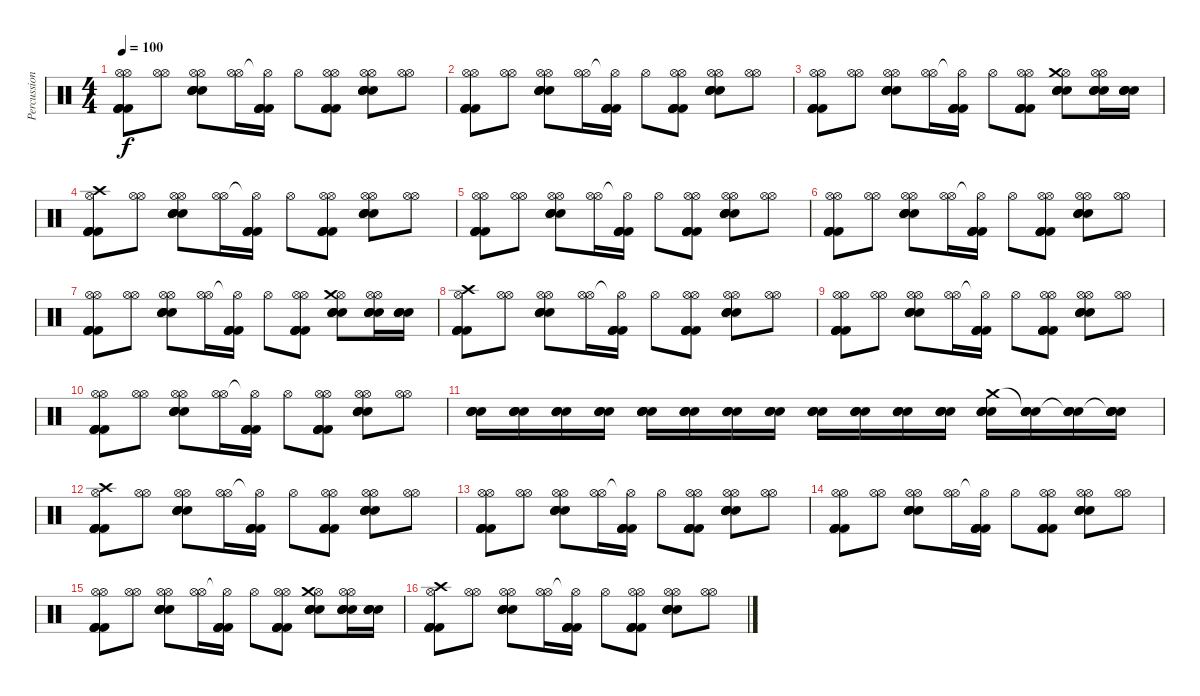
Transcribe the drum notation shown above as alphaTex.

\track ("Percussion" "Percussion") {instrument percussion}
\staff {score}
\articulation defaults
\ts (4 4)
\tempo 100
\clef neutral
\ks c
("Hi-Hat (open)" "Kick (hit) 2" "Kick (hit) 2" "Kick (hit) 2" "Kick (hit) 2" "Hi-Hat (open)").8{dy f} ("Hi-Hat (open)" "Hi-Hat (open)").8 ("Hi-Hat (open)" "Electric Snare (hit)" "Electric Snare (hit)" "Electric Snare (hit)" "Electric Snare (hit)" "Hi-Hat (open)").8 ("Hi-Hat (open)" "Hi-Hat (open)").16 ("Hi-Hat (open)"{t} "Kick (hit) 2" "Kick (hit) 2" "Kick (hit) 2" "Kick (hit) 2").16 "Hi-Hat (open)".8 ("Hi-Hat (open)" "Kick (hit) 2" "Kick (hit) 2" "Kick (hit) 2" "Kick (hit) 2" "Hi-Hat (open)").8 ("Hi-Hat (open)" "Electric Snare (hit)" "Electric Snare (hit)" "Electric Snare (hit)" "Electric Snare (hit)" "Hi-Hat (open)").8 ("Hi-Hat (open)" "Hi-Hat (open)").8 |
("Hi-Hat (open)" "Kick (hit) 2" "Kick (hit) 2" "Kick (hit) 2" "Kick (hit) 2" "Hi-Hat (open)").8 ("Hi-Hat (open)" "Hi-Hat (open)").8 ("Hi-Hat (open)" "Electric Snare (hit)" "Electric Snare (hit)" "Electric Snare (hit)" "Electric Snare (hit)" "Hi-Hat (open)").8 ("Hi-Hat (open)" "Hi-Hat (open)").16 ("Hi-Hat (open)"{t} "Kick (hit) 2" "Kick (hit) 2" "Kick (hit) 2" "Kick (hit) 2").16 "Hi-Hat (open)".8 ("Hi-Hat (open)" "Kick (hit) 2" "Kick (hit) 2" "Kick (hit) 2" "Kick (hit) 2" "Hi-Hat (open)").8 ("Hi-Hat (open)" "Electric Snare (hit)" "Electric Snare (hit)" "Electric Snare (hit)" "Electric Snare (hit)" "Hi-Hat (open)").8 ("Hi-Hat (open)" "Hi-Hat (open)").8 |
("Hi-Hat (open)" "Kick (hit) 2" "Kick (hit) 2" "Kick (hit) 2" "Kick (hit) 2" "Hi-Hat (open)").8 ("Hi-Hat (open)" "Hi-Hat (open)").8 ("Hi-Hat (open)" "Electric Snare (hit)" "Electric Snare (hit)" "Electric Snare (hit)" "Electric Snare (hit)" "Hi-Hat (open)").8 ("Hi-Hat (open)" "Hi-Hat (open)").16 ("Hi-Hat (open)"{t} "Kick (hit) 2" "Kick (hit) 2" "Kick (hit) 2" "Kick (hit) 2").16 "Hi-Hat (open)".8 ("Hi-Hat (open)" "Kick (hit) 2" "Kick (hit) 2" "Kick (hit) 2" "Kick (hit) 2" "Hi-Hat (open)").8 ("Hi-Hat (open)" "Electric Snare (hit)" "Electric Snare (hit)" "Electric Snare (hit)" "Electric Snare (hit)" "Crash medium (hit)").8 ("Hi-Hat (open)" "Electric Snare (hit)" "Electric Snare (hit)" "Electric Snare (hit)" "Electric Snare (hit)" "Hi-Hat (open)").16 ("Electric Snare (hit)" "Electric Snare (hit)" "Electric Snare (hit)" "Electric Snare (hit)").16 |
("Hi-Hat (open)" "Kick (hit) 2" "Kick (hit) 2" "Kick (hit) 2" "Kick (hit) 2" "Crash high (hit)").8 ("Hi-Hat (open)" "Hi-Hat (open)").8 ("Hi-Hat (open)" "Electric Snare (hit)" "Electric Snare (hit)" "Electric Snare (hit)" "Electric Snare (hit)" "Hi-Hat (open)").8 ("Hi-Hat (open)" "Hi-Hat (open)").16 ("Hi-Hat (open)"{t} "Kick (hit) 2" "Kick (hit) 2" "Kick (hit) 2" "Kick (hit) 2").16 "Hi-Hat (open)".8 ("Hi-Hat (open)" "Kick (hit) 2" "Kick (hit) 2" "Kick (hit) 2" "Kick (hit) 2" "Hi-Hat (open)").8 ("Hi-Hat (open)" "Electric Snare (hit)" "Electric Snare (hit)" "Electric Snare (hit)" "Electric Snare (hit)" "Hi-Hat (open)").8 ("Hi-Hat (open)" "Hi-Hat (open)").8 |
("Hi-Hat (open)" "Kick (hit) 2" "Kick (hit) 2" "Kick (hit) 2" "Kick (hit) 2" "Hi-Hat (open)").8 ("Hi-Hat (open)" "Hi-Hat (open)").8 ("Hi-Hat (open)" "Electric Snare (hit)" "Electric Snare (hit)" "Electric Snare (hit)" "Electric Snare (hit)" "Hi-Hat (open)").8 ("Hi-Hat (open)" "Hi-Hat (open)").16 ("Hi-Hat (open)"{t} "Kick (hit) 2" "Kick (hit) 2" "Kick (hit) 2" "Kick (hit) 2").16 "Hi-Hat (open)".8 ("Hi-Hat (open)" "Kick (hit) 2" "Kick (hit) 2" "Kick (hit) 2" "Kick (hit) 2" "Hi-Hat (open)").8 ("Hi-Hat (open)" "Electric Snare (hit)" "Electric Snare (hit)" "Electric Snare (hit)" "Electric Snare (hit)" "Hi-Hat (open)").8 ("Hi-Hat (open)" "Hi-Hat (open)").8 |
("Hi-Hat (open)" "Kick (hit) 2" "Kick (hit) 2" "Kick (hit) 2" "Kick (hit) 2" "Hi-Hat (open)").8 ("Hi-Hat (open)" "Hi-Hat (open)").8 ("Hi-Hat (open)" "Electric Snare (hit)" "Electric Snare (hit)" "Electric Snare (hit)" "Electric Snare (hit)" "Hi-Hat (open)").8 ("Hi-Hat (open)" "Hi-Hat (open)").16 ("Hi-Hat (open)"{t} "Kick (hit) 2" "Kick (hit) 2" "Kick (hit) 2" "Kick (hit) 2").16 "Hi-Hat (open)".8 ("Hi-Hat (open)" "Kick (hit) 2" "Kick (hit) 2" "Kick (hit) 2" "Kick (hit) 2" "Hi-Hat (open)").8 ("Hi-Hat (open)" "Electric Snare (hit)" "Electric Snare (hit)" "Electric Snare (hit)" "Electric Snare (hit)" "Hi-Hat (open)").8 ("Hi-Hat (open)" "Hi-Hat (open)").8 |
("Hi-Hat (open)" "Kick (hit) 2" "Kick (hit) 2" "Kick (hit) 2" "Kick (hit) 2" "Hi-Hat (open)").8 ("Hi-Hat (open)" "Hi-Hat (open)").8 ("Hi-Hat (open)" "Electric Snare (hit)" "Electric Snare (hit)" "Electric Snare (hit)" "Electric Snare (hit)" "Hi-Hat (open)").8 ("Hi-Hat (open)" "Hi-Hat (open)").16 ("Hi-Hat (open)"{t} "Kick (hit) 2" "Kick (hit) 2" "Kick (hit) 2" "Kick (hit) 2").16 "Hi-Hat (open)".8 ("Hi-Hat (open)" "Kick (hit) 2" "Kick (hit) 2" "Kick (hit) 2" "Kick (hit) 2" "Hi-Hat (open)").8 ("Hi-Hat (open)" "Electric Snare (hit)" "Electric Snare (hit)" "Electric Snare (hit)" "Electric Snare (hit)" "Crash medium (hit)").8 ("Hi-Hat (open)" "Electric Snare (hit)" "Electric Snare (hit)" "Electric Snare (hit)" "Electric Snare (hit)" "Hi-Hat (open)").16 ("Electric Snare (hit)" "Electric Snare (hit)" "Electric Snare (hit)" "Electric Snare (hit)").16 |
("Hi-Hat (open)" "Kick (hit) 2" "Kick (hit) 2" "Kick (hit) 2" "Kick (hit) 2" "Crash high (hit)").8 ("Hi-Hat (open)" "Hi-Hat (open)").8 ("Hi-Hat (open)" "Electric Snare (hit)" "Electric Snare (hit)" "Electric Snare (hit)" "Electric Snare (hit)" "Hi-Hat (open)").8 ("Hi-Hat (open)" "Hi-Hat (open)").16 ("Hi-Hat (open)"{t} "Kick (hit) 2" "Kick (hit) 2" "Kick (hit) 2" "Kick (hit) 2").16 "Hi-Hat (open)".8 ("Hi-Hat (open)" "Kick (hit) 2" "Kick (hit) 2" "Kick (hit) 2" "Kick (hit) 2" "Hi-Hat (open)").8 ("Hi-Hat (open)" "Electric Snare (hit)" "Electric Snare (hit)" "Electric Snare (hit)" "Electric Snare (hit)" "Hi-Hat (open)").8 ("Hi-Hat (open)" "Hi-Hat (open)").8 |
("Hi-Hat (open)" "Kick (hit) 2" "Kick (hit) 2" "Kick (hit) 2" "Kick (hit) 2" "Hi-Hat (open)").8 ("Hi-Hat (open)" "Hi-Hat (open)").8 ("Hi-Hat (open)" "Electric Snare (hit)" "Electric Snare (hit)" "Electric Snare (hit)" "Electric Snare (hit)" "Hi-Hat (open)").8 ("Hi-Hat (open)" "Hi-Hat (open)").16 ("Hi-Hat (open)"{t} "Kick (hit) 2" "Kick (hit) 2" "Kick (hit) 2" "Kick (hit) 2").16 "Hi-Hat (open)".8 ("Hi-Hat (open)" "Kick (hit) 2" "Kick (hit) 2" "Kick (hit) 2" "Kick (hit) 2" "Hi-Hat (open)").8 ("Hi-Hat (open)" "Electric Snare (hit)" "Electric Snare (hit)" "Electric Snare (hit)" "Electric Snare (hit)" "Hi-Hat (open)").8 ("Hi-Hat (open)" "Hi-Hat (open)").8 |
("Hi-Hat (open)" "Kick (hit) 2" "Kick (hit) 2" "Kick (hit) 2" "Kick (hit) 2" "Hi-Hat (open)").8 ("Hi-Hat (open)" "Hi-Hat (open)").8 ("Hi-Hat (open)" "Electric Snare (hit)" "Electric Snare (hit)" "Electric Snare (hit)" "Electric Snare (hit)" "Hi-Hat (open)").8 ("Hi-Hat (open)" "Hi-Hat (open)").16 ("Hi-Hat (open)"{t} "Kick (hit) 2" "Kick (hit) 2" "Kick (hit) 2" "Kick (hit) 2").16 "Hi-Hat (open)".8 ("Hi-Hat (open)" "Kick (hit) 2" "Kick (hit) 2" "Kick (hit) 2" "Kick (hit) 2" "Hi-Hat (open)").8 ("Hi-Hat (open)" "Electric Snare (hit)" "Electric Snare (hit)" "Electric Snare (hit)" "Electric Snare (hit)" "Hi-Hat (open)").8 ("Hi-Hat (open)" "Hi-Hat (open)").8 |
("Electric Snare (hit)" "Electric Snare (hit)" "Electric Snare (hit)" "Electric Snare (hit)").16 ("Electric Snare (hit)" "Electric Snare (hit)" "Electric Snare (hit)" "Electric Snare (hit)").16 ("Electric Snare (hit)" "Electric Snare (hit)" "Electric Snare (hit)" "Electric Snare (hit)").16 ("Electric Snare (hit)" "Electric Snare (hit)" "Electric Snare (hit)" "Electric Snare (hit)").16 ("Electric Snare (hit)" "Electric Snare (hit)" "Electric Snare (hit)" "Electric Snare (hit)").16 ("Electric Snare (hit)" "Electric Snare (hit)" "Electric Snare (hit)" "Electric Snare (hit)").16 ("Electric Snare (hit)" "Electric Snare (hit)" "Electric Snare (hit)" "Electric Snare (hit)").16 ("Electric Snare (hit)" "Electric Snare (hit)" "Electric Snare (hit)" "Electric Snare (hit)").16 ("Electric Snare (hit)" "Electric Snare (hit)" "Electric Snare (hit)" "Electric Snare (hit)").16 ("Electric Snare (hit)" "Electric Snare (hit)" "Electric Snare (hit)" "Electric Snare (hit)").16 ("Electric Snare (hit)" "Electric Snare (hit)" "Electric Snare (hit)" "Electric Snare (hit)").16 ("Electric Snare (hit)" "Electric Snare (hit)" "Electric Snare (hit)" "Electric Snare (hit)").16 ("Electric Snare (hit)" "Electric Snare (hit)" "Electric Snare (hit)" "Electric Snare (hit)" "Crash medium (hit)").16 ("Electric Snare (hit)" "Electric Snare (hit)" "Electric Snare (hit)" "Electric Snare (hit)" "Snare (hit)"{t}).16 ("Electric Snare (hit)" "Electric Snare (hit)" "Electric Snare (hit)" "Electric Snare (hit)" "Snare (hit)"{t}).16 ("Electric Snare (hit)" "Electric Snare (hit)" "Electric Snare (hit)" "Electric Snare (hit)" "Snare (hit)"{t}).16 |
("Hi-Hat (open)" "Kick (hit) 2" "Kick (hit) 2" "Kick (hit) 2" "Kick (hit) 2" "Crash high (hit)").8 ("Hi-Hat (open)" "Hi-Hat (open)").8 ("Hi-Hat (open)" "Electric Snare (hit)" "Electric Snare (hit)" "Electric Snare (hit)" "Electric Snare (hit)" "Hi-Hat (open)").8 ("Hi-Hat (open)" "Hi-Hat (open)").16 ("Hi-Hat (open)"{t} "Kick (hit) 2" "Kick (hit) 2" "Kick (hit) 2" "Kick (hit) 2").16 "Hi-Hat (open)".8 ("Hi-Hat (open)" "Kick (hit) 2" "Kick (hit) 2" "Kick (hit) 2" "Kick (hit) 2" "Hi-Hat (open)").8 ("Hi-Hat (open)" "Electric Snare (hit)" "Electric Snare (hit)" "Electric Snare (hit)" "Electric Snare (hit)" "Hi-Hat (open)").8 ("Hi-Hat (open)" "Hi-Hat (open)").8 |
("Hi-Hat (open)" "Kick (hit) 2" "Kick (hit) 2" "Kick (hit) 2" "Kick (hit) 2" "Hi-Hat (open)").8 ("Hi-Hat (open)" "Hi-Hat (open)").8 ("Hi-Hat (open)" "Electric Snare (hit)" "Electric Snare (hit)" "Electric Snare (hit)" "Electric Snare (hit)" "Hi-Hat (open)").8 ("Hi-Hat (open)" "Hi-Hat (open)").16 ("Hi-Hat (open)"{t} "Kick (hit) 2" "Kick (hit) 2" "Kick (hit) 2" "Kick (hit) 2").16 "Hi-Hat (open)".8 ("Hi-Hat (open)" "Kick (hit) 2" "Kick (hit) 2" "Kick (hit) 2" "Kick (hit) 2" "Hi-Hat (open)").8 ("Hi-Hat (open)" "Electric Snare (hit)" "Electric Snare (hit)" "Electric Snare (hit)" "Electric Snare (hit)" "Hi-Hat (open)").8 ("Hi-Hat (open)" "Hi-Hat (open)").8 |
("Hi-Hat (open)" "Kick (hit) 2" "Kick (hit) 2" "Kick (hit) 2" "Kick (hit) 2" "Hi-Hat (open)").8 ("Hi-Hat (open)" "Hi-Hat (open)").8 ("Hi-Hat (open)" "Electric Snare (hit)" "Electric Snare (hit)" "Electric Snare (hit)" "Electric Snare (hit)" "Hi-Hat (open)").8 ("Hi-Hat (open)" "Hi-Hat (open)").16 ("Hi-Hat (open)"{t} "Kick (hit) 2" "Kick (hit) 2" "Kick (hit) 2" "Kick (hit) 2").16 "Hi-Hat (open)".8 ("Hi-Hat (open)" "Kick (hit) 2" "Kick (hit) 2" "Kick (hit) 2" "Kick (hit) 2" "Hi-Hat (open)").8 ("Hi-Hat (open)" "Electric Snare (hit)" "Electric Snare (hit)" "Electric Snare (hit)" "Electric Snare (hit)" "Hi-Hat (open)").8 ("Hi-Hat (open)" "Hi-Hat (open)").8 |
("Hi-Hat (open)" "Kick (hit) 2" "Kick (hit) 2" "Kick (hit) 2" "Kick (hit) 2" "Hi-Hat (open)").8 ("Hi-Hat (open)" "Hi-Hat (open)").8 ("Hi-Hat (open)" "Electric Snare (hit)" "Electric Snare (hit)" "Electric Snare (hit)" "Electric Snare (hit)" "Hi-Hat (open)").8 ("Hi-Hat (open)" "Hi-Hat (open)").16 ("Hi-Hat (open)"{t} "Kick (hit) 2" "Kick (hit) 2" "Kick (hit) 2" "Kick (hit) 2").16 "Hi-Hat (open)".8 ("Hi-Hat (open)" "Kick (hit) 2" "Kick (hit) 2" "Kick (hit) 2" "Kick (hit) 2" "Hi-Hat (open)").8 ("Hi-Hat (open)" "Electric Snare (hit)" "Electric Snare (hit)" "Electric Snare (hit)" "Electric Snare (hit)" "Crash medium (hit)").8 ("Hi-Hat (open)" "Electric Snare (hit)" "Electric Snare (hit)" "Electric Snare (hit)" "Electric Snare (hit)" "Hi-Hat (open)").16 ("Electric Snare (hit)" "Electric Snare (hit)" "Electric Snare (hit)" "Electric Snare (hit)").16 |
("Hi-Hat (open)" "Kick (hit) 2" "Kick (hit) 2" "Kick (hit) 2" "Kick (hit) 2" "Crash high (hit)").8 ("Hi-Hat (open)" "Hi-Hat (open)").8 ("Hi-Hat (open)" "Electric Snare (hit)" "Electric Snare (hit)" "Electric Snare (hit)" "Electric Snare (hit)" "Hi-Hat (open)").8 ("Hi-Hat (open)" "Hi-Hat (open)").16 ("Hi-Hat (open)"{t} "Kick (hit) 2" "Kick (hit) 2" "Kick (hit) 2" "Kick (hit) 2").16 "Hi-Hat (open)".8 ("Hi-Hat (open)" "Kick (hit) 2" "Kick (hit) 2" "Kick (hit) 2" "Kick (hit) 2" "Hi-Hat (open)").8 ("Hi-Hat (open)" "Electric Snare (hit)" "Electric Snare (hit)" "Electric Snare (hit)" "Electric Snare (hit)" "Hi-Hat (open)").8 ("Hi-Hat (open)" "Hi-Hat (open)").8
